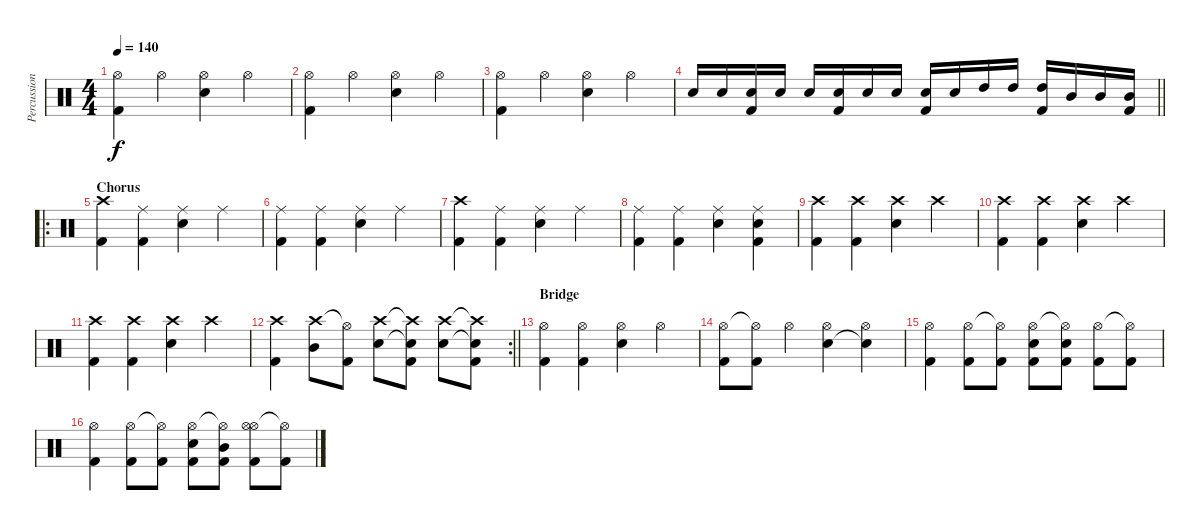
\track ("Percussion" "Percussion") {instrument percussion}
\staff {score}
\articulation defaults
\ts (4 4)
\tempo 140
\clef neutral
\ks c
("Hi-Hat (open)" "Kick (hit) 2").4{dy f} "Hi-Hat (open)".4 ("Hi-Hat (open)" "Snare (hit) 2").4 "Hi-Hat (open)".4 |
("Hi-Hat (open)" "Kick (hit) 2").4 "Hi-Hat (open)".4 ("Hi-Hat (open)" "Snare (hit) 2").4 "Hi-Hat (open)".4 |
("Hi-Hat (open)" "Kick (hit) 2").4 "Hi-Hat (open)".4 ("Hi-Hat (open)" "Snare (hit) 2").4 "Hi-Hat (open)".4 |
\barLineRight lightlight "Snare (hit) 2".16 "Snare (hit) 2".16
("Kick (hit) 2" "Snare (hit) 2").16 "Snare (hit) 2".16 "Snare (hit) 2".16 ("Kick (hit) 2" "Snare (hit) 2").16 "Snare (hit) 2".16 "Snare (hit) 2".16 ("Kick (hit) 2" "Snare (hit) 2").16 "Snare (hit) 2".16 "High Tom (hit)".16 "High Tom (hit)".16 ("Kick (hit) 2" "High Tom (hit)").16 "Mid Tom (hit)".16 "Mid Tom (hit)".16 ("Kick (hit) 2" "Mid Tom (hit)").16 |
\ro
\section ("" "Chorus")
("Crash high (hit)" "Kick (hit) 2").4 ("Ride (middle)" "Kick (hit) 2").4 ("Ride (middle)" "Snare (hit) 2").4 "Ride (middle)".4 |
("Ride (middle)" "Kick (hit) 2").4 ("Ride (middle)" "Kick (hit) 2").4 ("Ride (middle)" "Snare (hit) 2").4 "Ride (middle)".4 |
("Crash high (hit)" "Kick (hit) 2").4 ("Ride (middle)" "Kick (hit) 2").4 ("Ride (middle)" "Snare (hit) 2").4 "Ride (middle)".4 |
("Ride (middle)" "Kick (hit) 2").4 ("Ride (middle)" "Kick (hit) 2").4 ("Ride (middle)" "Snare (hit) 2").4 ("Ride (middle)" "Snare (hit) 2" "Kick (hit) 2").4 |
("Crash high (hit)" "Kick (hit) 2").4 ("Crash high (hit)" "Kick (hit) 2").4 ("Crash high (hit)" "Snare (hit) 2").4 "Crash high (hit)".4 |
("Crash high (hit)" "Kick (hit) 2").4 ("Crash high (hit)" "Kick (hit) 2").4 ("Crash high (hit)" "Snare (hit) 2").4 "Crash high (hit)".4 |
("Crash high (hit)" "Kick (hit) 2").4 ("Crash high (hit)" "Kick (hit) 2").4 ("Crash high (hit)" "Snare (hit) 2").4 "Crash high (hit)".4 |
\rc 2
\barLineRight lightlight
("Crash high (hit)" "Kick (hit) 2").4 ("Crash high (hit)" "Mid Tom (hit)").8 ("Hi-Hat (open)"{t} "Kick (hit) 2").8 ("Crash high (hit)" "Snare (hit) 2").8 ("Crash high (hit)"{t} "Snare (hit) 2"{t} "Kick (hit) 2").8 ("Crash high (hit)" "Snare (hit) 2").8 ("Crash high (hit)"{t} "Snare (hit) 2"{t} "Kick (hit) 2").8 |
\section ("" "Bridge")
("Hi-Hat (open)" "Kick (hit) 2").4 ("Hi-Hat (open)" "Kick (hit) 2").4 ("Hi-Hat (open)" "Snare (hit) 2").4 "Hi-Hat (open)".4 |
("Hi-Hat (open)" "Kick (hit) 2").8 ("Hi-Hat (open)"{t} "Kick (hit) 2").8 "Hi-Hat (open)".4 ("Hi-Hat (open)" "Snare (hit) 2").4 ("Hi-Hat (open)" "Snare (hit) 2"{t}).4 |
("Hi-Hat (open)" "Kick (hit) 2").4 ("Hi-Hat (open)" "Kick (hit) 2").8 ("Hi-Hat (open)"{t} "Kick (hit) 2").8 ("Hi-Hat (open)" "Snare (hit) 2" "Kick (hit) 2").8 ("Hi-Hat (open)"{t} "Snare (hit) 2" "Kick (hit) 2").8 ("Hi-Hat (open)" "Kick (hit) 2").8 ("Hi-Hat (open)"{t} "Kick (hit) 2").8 |
("Hi-Hat (open)" "Kick (hit) 2").4 ("Hi-Hat (open)" "Kick (hit) 2").8 ("Hi-Hat (open)"{t} "Kick (hit) 2").8 ("Hi-Hat (open)" "Snare (hit) 2" "Kick (hit) 2").8 ("Hi-Hat (open)"{t} "Mid Tom (hit)" "Kick (hit) 2").8 ("Hi-Hat (open)" "Hi-Hat (open)" "Kick (hit) 2").8 ("Hi-Hat (open)"{t} "Kick (hit) 2").8
